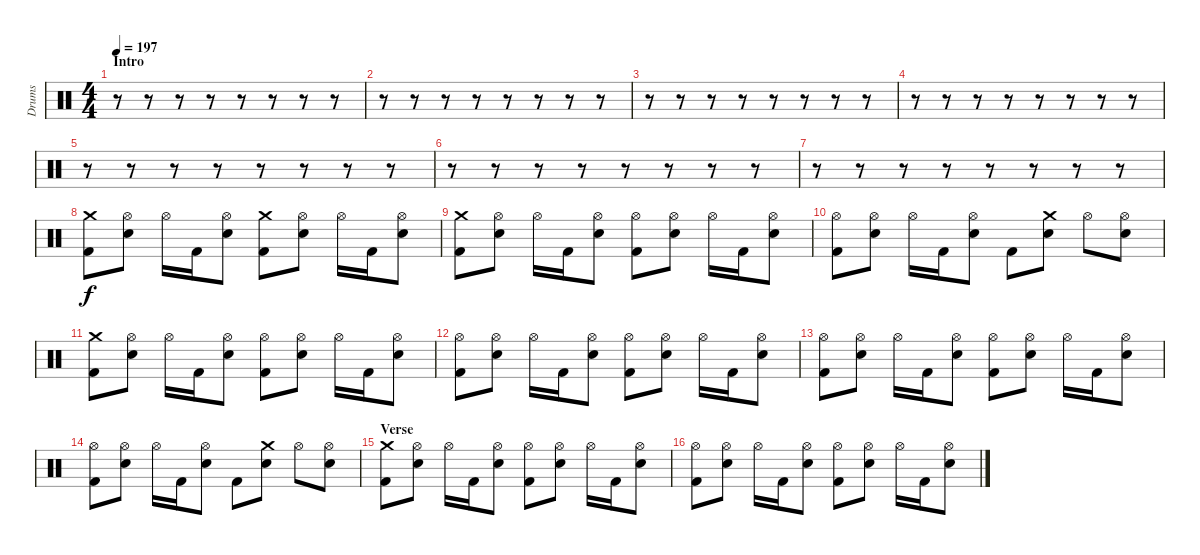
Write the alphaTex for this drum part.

\track ("Drums" "Drums") {instrument percussion}
\staff {score}
\articulation defaults
\ts (4 4)
\section ("" "Intro")
\tempo 197
\clef neutral
\ks c
r.8{dy f} r.8 r.8 r.8 r.8 r.8 r.8 r.8 |
r.8 r.8 r.8 r.8 r.8 r.8 r.8 r.8 |
r.8 r.8 r.8 r.8 r.8 r.8 r.8 r.8 |
r.8 r.8 r.8 r.8 r.8 r.8 r.8 r.8 |
r.8 r.8 r.8 r.8 r.8 r.8 r.8 r.8 |
r.8 r.8 r.8 r.8 r.8 r.8 r.8 r.8 |
r.8 r.8 r.8 r.8 r.8 r.8 r.8 r.8 |
("Crash medium (hit)" "Kick (hit) 2").8 ("Hi-Hat (open)" "Electric Snare (hit)").8 "Hi-Hat (open)".16 "Kick (hit) 2".16 ("Hi-Hat (open)" "Electric Snare (hit)").8 ("Crash medium (hit)" "Kick (hit) 2").8 ("Hi-Hat (open)" "Electric Snare (hit)").8 "Hi-Hat (open)".16 "Kick (hit) 2".16 ("Hi-Hat (open)" "Electric Snare (hit)").8 |
("Crash medium (hit)" "Kick (hit) 2").8 ("Hi-Hat (open)" "Electric Snare (hit)").8 "Hi-Hat (open)".16 "Kick (hit) 2".16 ("Hi-Hat (open)" "Electric Snare (hit)").8 ("Hi-Hat (open)" "Kick (hit) 2").8 ("Hi-Hat (open)" "Electric Snare (hit)").8 "Hi-Hat (open)".16 "Kick (hit) 2".16 ("Hi-Hat (open)" "Electric Snare (hit)").8 |
("Hi-Hat (open)" "Kick (hit) 2").8 ("Hi-Hat (open)" "Electric Snare (hit)").8 "Hi-Hat (open)".16 "Kick (hit) 2".16 ("Hi-Hat (open)" "Electric Snare (hit)").8 "Kick (hit) 2".8 ("Crash medium (hit)" "Electric Snare (hit)").8 "Hi-Hat (open)".8 ("Hi-Hat (open)" "Electric Snare (hit)").8 |
("Crash medium (hit)" "Kick (hit) 2").8 ("Hi-Hat (open)" "Electric Snare (hit)").8 "Hi-Hat (open)".16 "Kick (hit) 2".16 ("Hi-Hat (open)" "Electric Snare (hit)").8 ("Hi-Hat (open)" "Kick (hit) 2").8 ("Hi-Hat (open)" "Electric Snare (hit)").8 "Hi-Hat (open)".16 "Kick (hit) 2".16 ("Hi-Hat (open)" "Electric Snare (hit)").8 |
("Hi-Hat (open)" "Kick (hit) 2").8 ("Hi-Hat (open)" "Electric Snare (hit)").8 "Hi-Hat (open)".16 "Kick (hit) 2".16 ("Hi-Hat (open)" "Electric Snare (hit)").8 ("Hi-Hat (open)" "Kick (hit) 2").8 ("Hi-Hat (open)" "Electric Snare (hit)").8 "Hi-Hat (open)".16 "Kick (hit) 2".16 ("Hi-Hat (open)" "Electric Snare (hit)").8 |
("Hi-Hat (open)" "Kick (hit) 2").8 ("Hi-Hat (open)" "Electric Snare (hit)").8 "Hi-Hat (open)".16 "Kick (hit) 2".16 ("Hi-Hat (open)" "Electric Snare (hit)").8 ("Hi-Hat (open)" "Kick (hit) 2").8 ("Hi-Hat (open)" "Electric Snare (hit)").8 "Hi-Hat (open)".16 "Kick (hit) 2".16 ("Hi-Hat (open)" "Electric Snare (hit)").8 |
("Hi-Hat (open)" "Kick (hit) 2").8 ("Hi-Hat (open)" "Electric Snare (hit)").8 "Hi-Hat (open)".16 "Kick (hit) 2".16 ("Hi-Hat (open)" "Electric Snare (hit)").8 "Kick (hit) 2".8 ("Crash medium (hit)" "Electric Snare (hit)").8 "Hi-Hat (open)".8 ("Hi-Hat (open)" "Electric Snare (hit)").8 |
\section ("" "Verse")
("Crash medium (hit)" "Kick (hit) 2").8 ("Hi-Hat (open)" "Electric Snare (hit)").8 "Hi-Hat (open)".16 "Kick (hit) 2".16 ("Hi-Hat (open)" "Electric Snare (hit)").8 ("Hi-Hat (open)" "Kick (hit) 2").8 ("Hi-Hat (open)" "Electric Snare (hit)").8 "Hi-Hat (open)".16 "Kick (hit) 2".16 ("Hi-Hat (open)" "Electric Snare (hit)").8 |
("Hi-Hat (open)" "Kick (hit) 2").8 ("Hi-Hat (open)" "Electric Snare (hit)").8 "Hi-Hat (open)".16 "Kick (hit) 2".16 ("Hi-Hat (open)" "Electric Snare (hit)").8 ("Hi-Hat (open)" "Kick (hit) 2").8 ("Hi-Hat (open)" "Electric Snare (hit)").8 "Hi-Hat (open)".16 "Kick (hit) 2".16 ("Hi-Hat (open)" "Electric Snare (hit)").8
